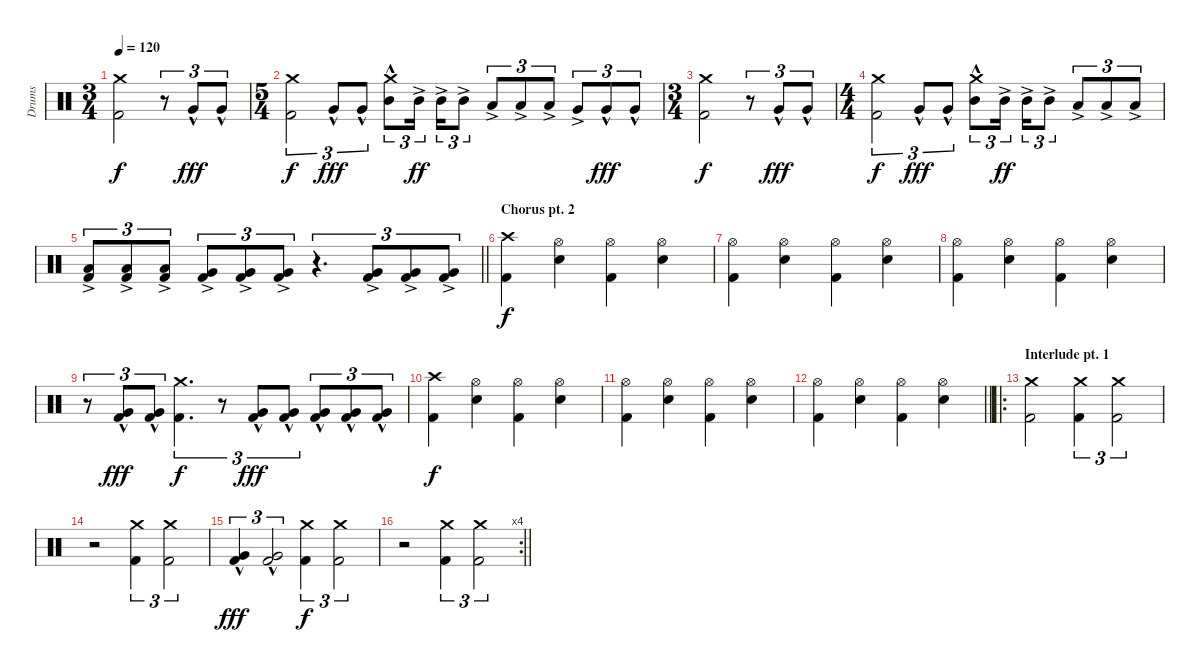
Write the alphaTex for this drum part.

\track ("Drums" "Drums") {instrument percussion}
\staff {score}
\articulation defaults
\ts (3 4)
\tempo 120
\clef neutral
\ks c
("Crash medium (hit)" "Kick (hit) 2").2{dy f} r.8{tu (3 2)} "Very Low Tom (hit)"{hac}.8{tu (3 2) dy fff} "Very Low Tom (hit)"{hac}.8{tu (3 2)} |
\ts (5 4)
("Crash medium (hit)" "Kick (hit) 2").2{tu (3 2) dy f} "Very Low Tom (hit)"{hac}.8{tu (3 2) dy fff} "Very Low Tom (hit)"{hac}.8{tu (3 2)} ("Crash medium (hit)" "Mid Tom (hit)"{hac}).8{tu (3 2)} "Mid Tom (hit)"{ac}.16{tu (3 2) dy ff beam splitsecondary} "Mid Tom (hit)"{ac}.16{tu (3 2)} "Mid Tom (hit)"{ac}.8{tu (3 2)} "Low Tom (hit)"{ac}.8{tu (3 2)} "Low Tom (hit)"{ac}.8{tu (3 2)} "Low Tom (hit)"{ac}.8{tu (3 2)} "Very Low Tom (hit)"{ac}.8{tu (3 2)} "Very Low Tom (hit)"{hac}.8{tu (3 2) dy fff} "Very Low Tom (hit)"{hac}.8{tu (3 2)} |
\ts (3 4)
("Crash medium (hit)" "Kick (hit) 2").2{dy f} r.8{tu (3 2)} "Very Low Tom (hit)"{hac}.8{tu (3 2) dy fff} "Very Low Tom (hit)"{hac}.8{tu (3 2)} |
\ts (4 4)
("Crash medium (hit)" "Kick (hit) 2").2{tu (3 2) dy f} "Very Low Tom (hit)"{hac}.8{tu (3 2) dy fff} "Very Low Tom (hit)"{hac}.8{tu (3 2)} ("Crash medium (hit)" "Mid Tom (hit)"{hac}).8{tu (3 2)} "Mid Tom (hit)"{ac}.16{tu (3 2) dy ff beam splitsecondary} "Mid Tom (hit)"{ac}.16{tu (3 2)} "Mid Tom (hit)"{ac}.8{tu (3 2)} "Low Tom (hit)"{ac}.8{tu (3 2)} "Low Tom (hit)"{ac}.8{tu (3 2)} "Low Tom (hit)"{ac}.8{tu (3 2)} |
\barLineRight lightlight
("Low Tom (hit)"{ac} "Kick (hit) 2").8{tu (3 2)} ("Low Tom (hit)"{ac} "Kick (hit) 2").8{tu (3 2)} ("Low Tom (hit)"{ac} "Kick (hit) 2").8{tu (3 2)} ("Very Low Tom (hit)"{ac} "Kick (hit) 2").8{tu (3 2)} ("Very Low Tom (hit)"{ac} "Kick (hit) 2").8{tu (3 2)} ("Very Low Tom (hit)"{ac} "Kick (hit) 2").8{tu (3 2)} r.4{d tu (3 2)} ("Very Low Tom (hit)"{ac} "Kick (hit) 2").8{tu (3 2)} ("Very Low Tom (hit)"{ac} "Kick (hit) 2").8{tu (3 2)} ("Very Low Tom (hit)"{ac} "Kick (hit) 2").8{tu (3 2)} |
\section ("" "Chorus pt. 2")
("Crash high (hit)" "Kick (hit) 2").4{dy f} ("Hi-Hat (open)" "Snare (hit) 2").4 ("Hi-Hat (open)" "Kick (hit) 2").4 ("Hi-Hat (open)" "Snare (hit) 2").4 |
("Hi-Hat (open)" "Kick (hit) 2").4 ("Hi-Hat (open)" "Snare (hit) 2").4 ("Hi-Hat (open)" "Kick (hit) 2").4 ("Hi-Hat (open)" "Snare (hit) 2").4 |
("Hi-Hat (open)" "Kick (hit) 2").4 ("Hi-Hat (open)" "Snare (hit) 2").4 ("Hi-Hat (open)" "Kick (hit) 2").4 ("Hi-Hat (open)" "Snare (hit) 2").4 |
r.8{tu (3 2)} ("Very Low Tom (hit)"{hac} "Kick (hit) 2").8{tu (3 2) dy fff} ("Very Low Tom (hit)"{hac} "Kick (hit) 2").8{tu (3 2)} ("Crash medium (hit)" "Kick (hit) 2").4{d tu (3 2) dy f} r.8{tu (3 2)} ("Very Low Tom (hit)"{hac} "Kick (hit) 2").8{tu (3 2) dy fff} ("Very Low Tom (hit)"{hac} "Kick (hit) 2").8{tu (3 2)} ("Very Low Tom (hit)"{hac} "Kick (hit) 2").8{tu (3 2)} ("Very Low Tom (hit)"{hac} "Kick (hit) 2").8{tu (3 2)} ("Very Low Tom (hit)"{hac} "Kick (hit) 2").8{tu (3 2)} |
("Crash high (hit)" "Kick (hit) 2").4{dy f} ("Hi-Hat (open)" "Snare (hit) 2").4 ("Hi-Hat (open)" "Kick (hit) 2").4 ("Hi-Hat (open)" "Snare (hit) 2").4 |
("Hi-Hat (open)" "Kick (hit) 2").4 ("Hi-Hat (open)" "Snare (hit) 2").4 ("Hi-Hat (open)" "Kick (hit) 2").4 ("Hi-Hat (open)" "Snare (hit) 2").4 |
\barLineRight lightlight
("Hi-Hat (open)" "Kick (hit) 2").4 ("Hi-Hat (open)" "Snare (hit) 2").4 ("Hi-Hat (open)" "Kick (hit) 2").4 ("Hi-Hat (open)" "Snare (hit) 2").4 |
\ro
\section ("" "Interlude pt. 1")
("Crash medium (hit)" "Kick (hit) 2").2 ("Crash medium (hit)" "Kick (hit) 2").4{tu (3 2)} ("Crash medium (hit)" "Kick (hit) 2").2{tu (3 2)} |
r.2 ("Crash medium (hit)" "Kick (hit) 2").4{tu (3 2)} ("Crash medium (hit)" "Kick (hit) 2").2{tu (3 2)} |
("Very Low Tom (hit)"{hac} "Kick (hit) 2").4{tu (3 2) dy fff} ("Very Low Tom (hit)"{hac} "Kick (hit) 2").2{tu (3 2)} ("Crash medium (hit)" "Kick (hit) 2").4{tu (3 2) dy f} ("Crash medium (hit)" "Kick (hit) 2").2{tu (3 2)} |
\rc 4
\barLineRight lightlight
r.2 ("Crash medium (hit)" "Kick (hit) 2").4{tu (3 2)} ("Crash medium (hit)" "Kick (hit) 2").2{tu (3 2)}
